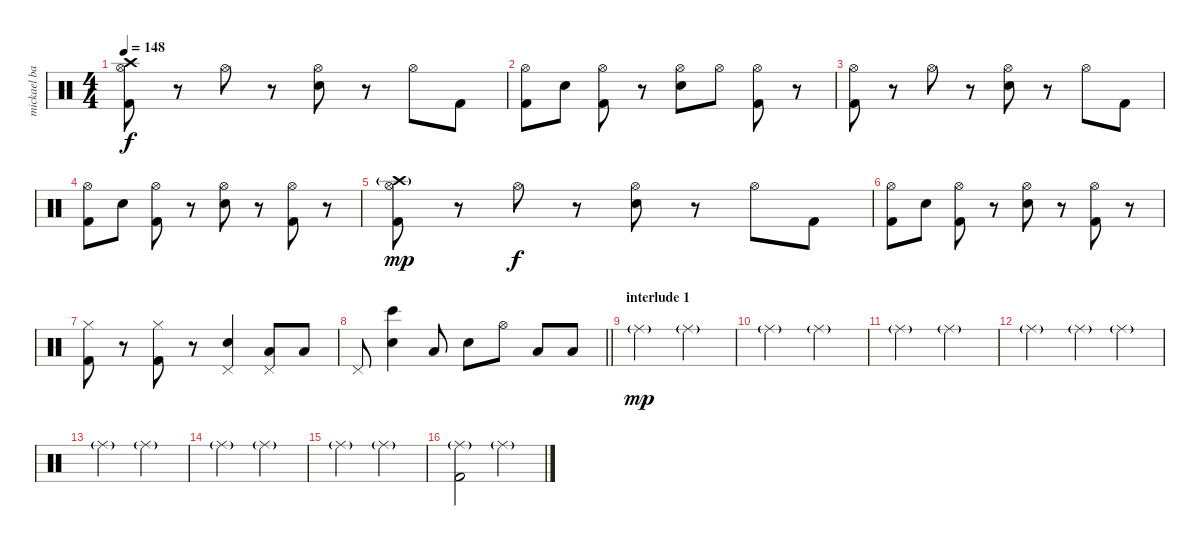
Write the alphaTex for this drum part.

\track ("mickael barker drums" "mickael ba") {instrument percussion}
\staff {score}
\articulation defaults
\ts (4 4)
\tempo 148
\clef neutral
\ks c
("Crash high (hit)" "Hi-Hat (open)" "Kick (hit) 2").8{dy f} r.8 "Hi-Hat (open)".8 r.8 ("Hi-Hat (open)" "Snare (hit) 2").8 r.8 "Hi-Hat (open)".8 "Kick (hit) 2".8 |
("Hi-Hat (open)" "Kick (hit) 2").8 "Snare (hit) 2".8 ("Hi-Hat (open)" "Kick (hit) 2").8 r.8 ("Hi-Hat (open)" "Snare (hit) 2").8 "Hi-Hat (open)".8 ("Hi-Hat (open)" "Kick (hit) 2").8 r.8 |
("Hi-Hat (open)" "Kick (hit) 2").8 r.8 "Hi-Hat (open)".8 r.8 ("Hi-Hat (open)" "Snare (hit) 2").8 r.8 "Hi-Hat (open)".8 "Kick (hit) 2".8 |
("Hi-Hat (open)" "Kick (hit) 2").8 "Snare (hit) 2".8 ("Hi-Hat (open)" "Kick (hit) 2").8 r.8 ("Hi-Hat (open)" "Snare (hit) 2").8 r.8 ("Hi-Hat (open)" "Kick (hit) 2").8 r.8 |
("Crash high (hit)"{g} "Hi-Hat (open)" "Kick (hit) 2").8{dy mp} r.8 "Hi-Hat (open)".8{dy f} r.8 ("Hi-Hat (open)" "Snare (hit) 2").8 r.8 "Hi-Hat (open)".8 "Kick (hit) 2".8 |
("Hi-Hat (open)" "Kick (hit) 2").8 "Snare (hit) 2".8 ("Hi-Hat (open)" "Kick (hit) 2").8 r.8 ("Hi-Hat (open)" "Snare (hit) 2").8 r.8 ("Hi-Hat (open)" "Kick (hit) 2").8 r.8 |
("Hi-Hat (closed)" "Kick (hit) 2").8 r.8 ("Hi-Hat (closed)" "Kick (hit) 2").8 r.8 ("Pedal Hi-Hat (hit)" "Snare (hit) 2").4 ("Pedal Hi-Hat (hit)" "Low Tom (hit)").8 "Low Tom (hit)".8 |
\barLineRight lightlight "Pedal Hi-Hat (hit)".8
("Bongo High (hit)" "Snare (hit) 2").4 "Low Tom (hit)".8 "Snare (hit) 2".8 "Hi-Hat (open)".8 "Low Tom (hit)".8 "Low Floor Tom (hit)".8 |
\section ("" "interlude 1")
"Ride (middle)"{g}.2{dy mp} "Ride (middle)"{g}.2 |
"Ride (middle)"{g}.2 "Ride (middle)"{g}.2 |
"Ride (middle)"{g}.2 "Ride (middle)"{g}.2 |
"Ride (middle)"{g}.2 "Ride (middle)"{g}.4 "Ride (middle)"{g}.4 |
"Ride (middle)"{g}.2 "Ride (middle)"{g}.2 |
"Ride (middle)"{g}.2 "Ride (middle)"{g}.2 |
"Ride (middle)"{g}.2 "Ride (middle)"{g}.2 |
("Ride (middle)"{g} "Kick (hit) 2").2 "Ride (middle)"{g}.2
